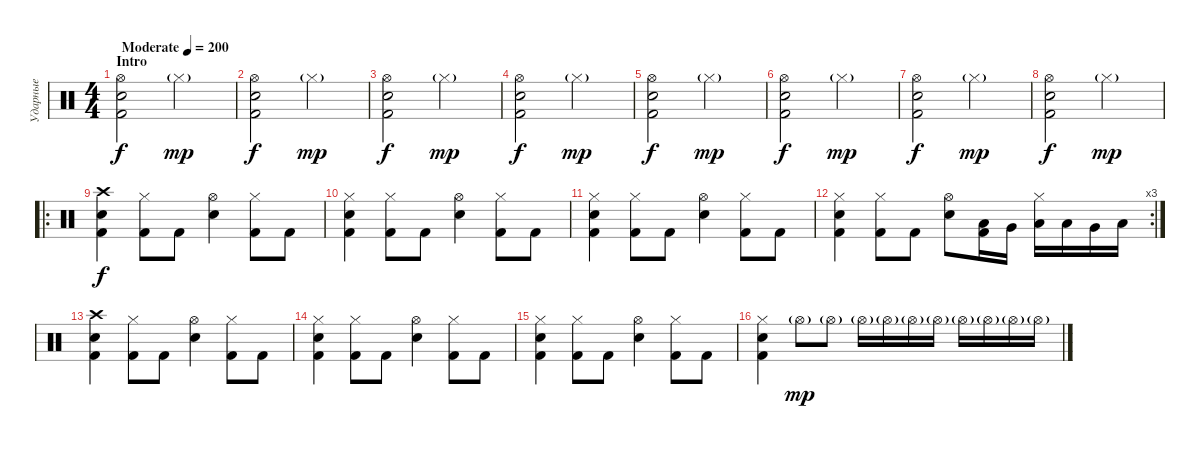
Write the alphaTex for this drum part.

\track ("Ударные" "Ударные") {instrument percussion}
\staff {score}
\articulation defaults
\ts (4 4)
\section ("" "Intro")
\tempo (200 "Moderate")
\tempo 160
\tempo (200 "Moderate")
\clef neutral
\ks c
("Hi-Hat (open)" "Snare (hit) 2" "Kick (hit) 2").2{dy f} "Hi-Hat (closed)"{g}.2{dy mp} |
("Hi-Hat (open)" "Snare (hit) 2" "Kick (hit) 2").2{dy f} "Hi-Hat (closed)"{g}.2{dy mp} |
("Hi-Hat (open)" "Snare (hit) 2" "Kick (hit) 2").2{dy f} "Hi-Hat (closed)"{g}.2{dy mp} |
("Hi-Hat (open)" "Snare (hit) 2" "Kick (hit) 2").2{dy f} "Hi-Hat (closed)"{g}.2{dy mp} |
("Hi-Hat (open)" "Snare (hit) 2" "Kick (hit) 2").2{dy f} "Hi-Hat (closed)"{g}.2{dy mp} |
("Hi-Hat (open)" "Snare (hit) 2" "Kick (hit) 2").2{dy f} "Hi-Hat (closed)"{g}.2{dy mp} |
("Hi-Hat (open)" "Snare (hit) 2" "Kick (hit) 2").2{dy f} "Hi-Hat (closed)"{g}.2{dy mp} |
("Hi-Hat (open)" "Snare (hit) 2" "Kick (hit) 2").2{dy f} "Hi-Hat (closed)"{g}.2{dy mp} |
\ro
("Crash high (hit)" "Snare (hit) 2" "Kick (hit) 2").4{dy f} ("Hi-Hat (closed)" "Kick (hit) 2").8 "Kick (hit) 2".8 ("Hi-Hat (open)" "Snare (hit) 2").4 ("Hi-Hat (closed)" "Kick (hit) 2").8 "Kick (hit) 2".8 |
("Hi-Hat (closed)" "Snare (hit) 2" "Kick (hit) 2").4 ("Hi-Hat (closed)" "Kick (hit) 2").8 "Kick (hit) 2".8 ("Hi-Hat (open)" "Snare (hit) 2").4 ("Hi-Hat (closed)" "Kick (hit) 2").8 "Kick (hit) 2".8 |
("Hi-Hat (closed)" "Snare (hit) 2" "Kick (hit) 2").4 ("Hi-Hat (closed)" "Kick (hit) 2").8 "Kick (hit) 2".8 ("Hi-Hat (open)" "Snare (hit) 2").4 ("Hi-Hat (closed)" "Kick (hit) 2").8 "Kick (hit) 2".8 |
\rc 3
("Hi-Hat (closed)" "Snare (hit) 2" "Kick (hit) 2").4 ("Hi-Hat (closed)" "Kick (hit) 2").8 "Kick (hit) 2".8 ("Hi-Hat (open)" "Snare (hit) 2").8 ("Low Floor Tom (hit)" "Kick (hit) 2").16 "Very Low Tom (hit)".16 ("Hi-Hat (closed)" "Low Floor Tom (hit)").16 "Low Tom (hit)".16 "Very Low Tom (hit)".16 "Low Floor Tom (hit)".16 |
("Crash high (hit)" "Snare (hit) 2" "Kick (hit) 2").4 ("Hi-Hat (closed)" "Kick (hit) 2").8 "Kick (hit) 2".8 ("Hi-Hat (open)" "Snare (hit) 2").4 ("Hi-Hat (closed)" "Kick (hit) 2").8 "Kick (hit) 2".8 |
("Hi-Hat (closed)" "Snare (hit) 2" "Kick (hit) 2").4 ("Hi-Hat (closed)" "Kick (hit) 2").8 "Kick (hit) 2".8 ("Hi-Hat (open)" "Snare (hit) 2").4 ("Hi-Hat (closed)" "Kick (hit) 2").8 "Kick (hit) 2".8 |
("Hi-Hat (closed)" "Snare (hit) 2" "Kick (hit) 2").4 ("Hi-Hat (closed)" "Kick (hit) 2").8 "Kick (hit) 2".8 ("Hi-Hat (open)" "Snare (hit) 2").4 ("Hi-Hat (closed)" "Kick (hit) 2").8 "Kick (hit) 2".8 |
("Hi-Hat (closed)" "Snare (hit) 2" "Kick (hit) 2").4 "Hi-Hat (open)"{g}.8{dy mp} "Hi-Hat (open)"{g}.8 "Hi-Hat (open)"{g}.16 "Hi-Hat (open)"{g}.16 "Hi-Hat (open)"{g}.16 "Hi-Hat (open)"{g}.16 "Hi-Hat (open)"{g}.16 "Hi-Hat (open)"{g}.16 "Hi-Hat (open)"{g}.16 "Hi-Hat (open)"{g}.16
